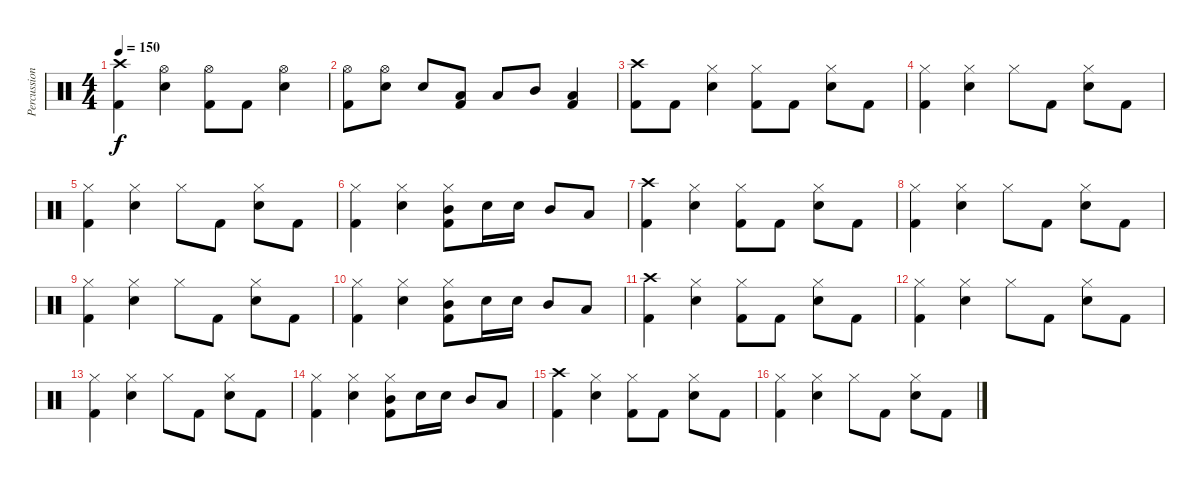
\track ("Percussion" "Percussion") {instrument percussion}
\staff {score}
\articulation defaults
\ts (4 4)
\tempo 150
\clef neutral
\ks c
("Crash high (hit)" "Kick (hit) 2").4{dy f} ("Hi-Hat (open)" "Snare (hit) 2").4 ("Hi-Hat (open)" "Kick (hit) 2").8 "Kick (hit) 2".8 ("Hi-Hat (open)" "Snare (hit) 2").4 |
("Hi-Hat (open)" "Kick (hit) 2").8 ("Hi-Hat (open)" "Snare (hit) 2").8 "Snare (hit) 2".8 ("Low Tom (hit)" "Kick (hit) 2").8 "Low Tom (hit)".8 "Mid Tom (hit)".8 ("Low Floor Tom (hit)" "Kick (hit) 2").4 |
("Crash high (hit)" "Kick (hit) 2").8 "Kick (hit) 2".8 ("Hi-Hat (closed)" "Snare (hit) 2").4 ("Hi-Hat (closed)" "Kick (hit) 2").8 "Kick (hit) 2".8 ("Hi-Hat (closed)" "Snare (hit) 2").8 "Kick (hit) 2".8 |
("Hi-Hat (closed)" "Kick (hit) 2").4 ("Hi-Hat (closed)" "Snare (hit) 2").4 "Hi-Hat (closed)".8 "Kick (hit) 2".8 ("Hi-Hat (closed)" "Snare (hit) 2").8 "Kick (hit) 2".8 |
("Hi-Hat (closed)" "Kick (hit) 2").4 ("Hi-Hat (closed)" "Snare (hit) 2").4 "Hi-Hat (closed)".8 "Kick (hit) 2".8 ("Hi-Hat (closed)" "Snare (hit) 2").8 "Kick (hit) 2".8 |
("Hi-Hat (closed)" "Kick (hit) 2").4 ("Hi-Hat (closed)" "Snare (hit) 2").4 ("Hi-Hat (closed)" "Mid Tom (hit)" "Kick (hit) 2").8 "Snare (hit) 2".16 "Snare (hit) 2".16 "Mid Tom (hit)".8 "Low Floor Tom (hit)".8 |
("Crash high (hit)" "Kick (hit) 2").4 ("Hi-Hat (closed)" "Snare (hit) 2").4 ("Hi-Hat (closed)" "Kick (hit) 2").8 "Kick (hit) 2".8 ("Hi-Hat (closed)" "Snare (hit) 2").8 "Kick (hit) 2".8 |
("Hi-Hat (closed)" "Kick (hit) 2").4 ("Hi-Hat (closed)" "Snare (hit) 2").4 "Hi-Hat (closed)".8 "Kick (hit) 2".8 ("Hi-Hat (closed)" "Snare (hit) 2").8 "Kick (hit) 2".8 |
("Hi-Hat (closed)" "Kick (hit) 2").4 ("Hi-Hat (closed)" "Snare (hit) 2").4 "Hi-Hat (closed)".8 "Kick (hit) 2".8 ("Hi-Hat (closed)" "Snare (hit) 2").8 "Kick (hit) 2".8 |
("Hi-Hat (closed)" "Kick (hit) 2").4 ("Hi-Hat (closed)" "Snare (hit) 2").4 ("Hi-Hat (closed)" "Mid Tom (hit)" "Kick (hit) 2").8 "Snare (hit) 2".16 "Snare (hit) 2".16 "Mid Tom (hit)".8 "Low Floor Tom (hit)".8 |
("Crash high (hit)" "Kick (hit) 2").4 ("Hi-Hat (closed)" "Snare (hit) 2").4 ("Hi-Hat (closed)" "Kick (hit) 2").8 "Kick (hit) 2".8 ("Hi-Hat (closed)" "Snare (hit) 2").8 "Kick (hit) 2".8 |
("Hi-Hat (closed)" "Kick (hit) 2").4 ("Hi-Hat (closed)" "Snare (hit) 2").4 "Hi-Hat (closed)".8 "Kick (hit) 2".8 ("Hi-Hat (closed)" "Snare (hit) 2").8 "Kick (hit) 2".8 |
("Hi-Hat (closed)" "Kick (hit) 2").4 ("Hi-Hat (closed)" "Snare (hit) 2").4 "Hi-Hat (closed)".8 "Kick (hit) 2".8 ("Hi-Hat (closed)" "Snare (hit) 2").8 "Kick (hit) 2".8 |
("Hi-Hat (closed)" "Kick (hit) 2").4 ("Hi-Hat (closed)" "Snare (hit) 2").4 ("Hi-Hat (closed)" "Mid Tom (hit)" "Kick (hit) 2").8 "Snare (hit) 2".16 "Snare (hit) 2".16 "Mid Tom (hit)".8 "Low Floor Tom (hit)".8 |
("Crash high (hit)" "Kick (hit) 2").4 ("Hi-Hat (closed)" "Snare (hit) 2").4 ("Hi-Hat (closed)" "Kick (hit) 2").8 "Kick (hit) 2".8 ("Hi-Hat (closed)" "Snare (hit) 2").8 "Kick (hit) 2".8 |
("Hi-Hat (closed)" "Kick (hit) 2").4 ("Hi-Hat (closed)" "Snare (hit) 2").4 "Hi-Hat (closed)".8 "Kick (hit) 2".8 ("Hi-Hat (closed)" "Snare (hit) 2").8 "Kick (hit) 2".8
